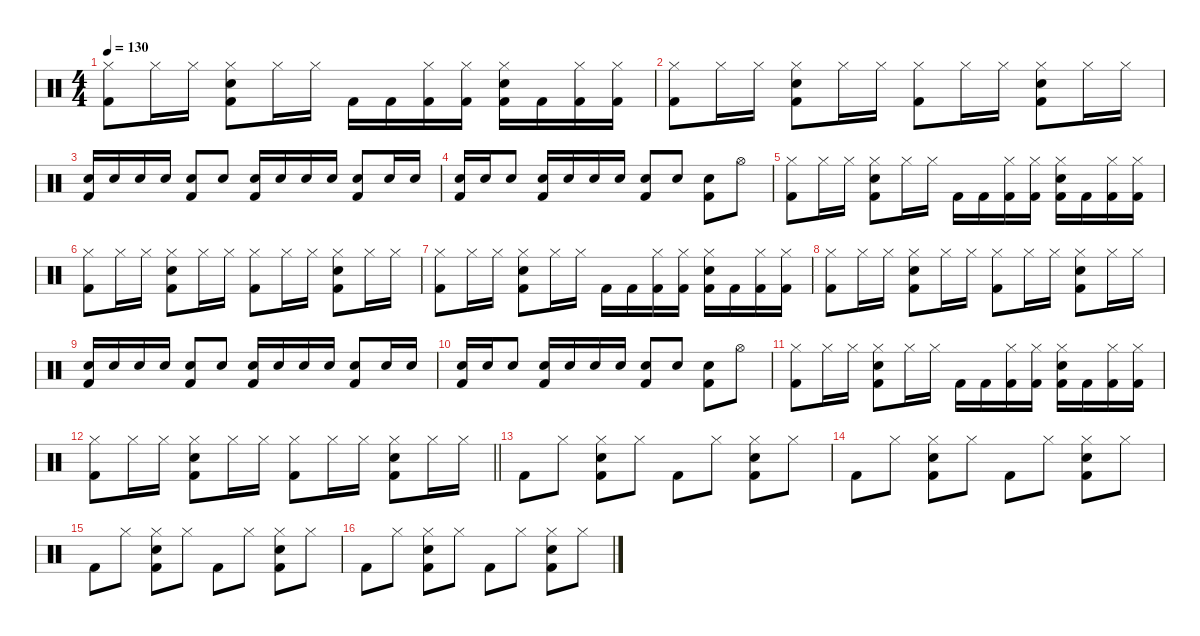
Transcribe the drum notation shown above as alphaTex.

\defaultSystemsLayout 4
\hideDynamics
\bracketExtendMode nobrackets
\singleTrackTrackNamePolicy hidden
\multiTrackTrackNamePolicy hidden
\otherSystemsTrackNameOrientation horizontal
\track ("Percussion" "drm.") {defaultSystemsLayout 4 instrument percussion}
\staff {score}
\articulation defaults
\ts (4 4)
\tempo 130
\clef neutral
\ks c
("Hi-Hat (closed)" "Kick (hit) 2").8{dy f beam Down} "Hi-Hat (closed)".16{beam Down} "Hi-Hat (closed)".16{beam Down} ("Hi-Hat (closed)" "Snare (hit) 2" "Kick (hit) 2").8{beam Down} "Hi-Hat (closed)".16{beam Down} "Hi-Hat (closed)".16{beam Down} "Kick (hit) 2".16{beam Down} "Kick (hit) 2".16{beam Down} ("Hi-Hat (closed)" "Kick (hit) 2").16{beam Down} ("Hi-Hat (closed)" "Kick (hit) 2").16{beam Down} ("Hi-Hat (closed)" "Snare (hit) 2" "Kick (hit) 2").16{beam Down} "Kick (hit) 2".16{beam Down} ("Hi-Hat (closed)" "Kick (hit) 2").16{beam Down} ("Hi-Hat (closed)" "Kick (hit) 2").16{beam Down} |
("Hi-Hat (closed)" "Kick (hit) 2").8{beam Down} "Hi-Hat (closed)".16{beam Down} "Hi-Hat (closed)".16{beam Down} ("Hi-Hat (closed)" "Snare (hit) 2" "Kick (hit) 2").8{beam Down} "Hi-Hat (closed)".16{beam Down} "Hi-Hat (closed)".16{beam Down} ("Hi-Hat (closed)" "Kick (hit) 2").8{beam Down} "Hi-Hat (closed)".16{beam Down} "Hi-Hat (closed)".16{beam Down} ("Hi-Hat (closed)" "Snare (hit) 2" "Kick (hit) 2").8{beam Down} "Hi-Hat (closed)".16{beam Down} "Hi-Hat (closed)".16{beam Down} |
("Snare (hit) 2" "Kick (hit) 2").16{beam Up} "Snare (hit) 2".16{beam Up} "Snare (hit) 2".16{beam Up} "Snare (hit) 2".16{beam Up} ("Snare (hit) 2" "Kick (hit) 2").8{beam Up} "Snare (hit) 2".8{beam Up} ("Snare (hit) 2" "Kick (hit) 2").16{beam Up} "Snare (hit) 2".16{beam Up} "Snare (hit) 2".16{beam Up} "Snare (hit) 2".16{beam Up} ("Snare (hit) 2" "Kick (hit) 2").8{beam Up} "Snare (hit) 2".16{beam Up} "Snare (hit) 2".16{beam Up} |
("Snare (hit) 2" "Kick (hit) 2").16{beam Up} "Snare (hit) 2".16{beam Up} "Snare (hit) 2".8{beam Up} ("Snare (hit) 2" "Kick (hit) 2").16{beam Up} "Snare (hit) 2".16{beam Up} "Snare (hit) 2".16{beam Up} "Snare (hit) 2".16{beam Up} ("Snare (hit) 2" "Kick (hit) 2").8{beam Up} "Hand Clap (hit)".8{beam Up} ("Hand Clap (hit)" "Kick (hit) 2").8{beam Down} "Hi-Hat (open)".8{beam Down} |
("Hi-Hat (closed)" "Kick (hit) 2").8{beam Down} "Hi-Hat (closed)".16{beam Down} "Hi-Hat (closed)".16{beam Down} ("Hi-Hat (closed)" "Snare (hit) 2" "Kick (hit) 2").8{beam Down} "Hi-Hat (closed)".16{beam Down} "Hi-Hat (closed)".16{beam Down} "Kick (hit) 2".16{beam Down} "Kick (hit) 2".16{beam Down} ("Hi-Hat (closed)" "Kick (hit) 2").16{beam Down} ("Hi-Hat (closed)" "Kick (hit) 2").16{beam Down} ("Hi-Hat (closed)" "Snare (hit) 2" "Kick (hit) 2").16{beam Down} "Kick (hit) 2".16{beam Down} ("Hi-Hat (closed)" "Kick (hit) 2").16{beam Down} ("Hi-Hat (closed)" "Kick (hit) 2").16{beam Down} |
("Hi-Hat (closed)" "Kick (hit) 2").8{beam Down} "Hi-Hat (closed)".16{beam Down} "Hi-Hat (closed)".16{beam Down} ("Hi-Hat (closed)" "Snare (hit) 2" "Kick (hit) 2").8{beam Down} "Hi-Hat (closed)".16{beam Down} "Hi-Hat (closed)".16{beam Down} ("Hi-Hat (closed)" "Kick (hit) 2").8{beam Down} "Hi-Hat (closed)".16{beam Down} "Hi-Hat (closed)".16{beam Down} ("Hi-Hat (closed)" "Snare (hit) 2" "Kick (hit) 2").8{beam Down} "Hi-Hat (closed)".16{beam Down} "Hi-Hat (closed)".16{beam Down} |
("Hi-Hat (closed)" "Kick (hit) 2").8{beam Down} "Hi-Hat (closed)".16{beam Down} "Hi-Hat (closed)".16{beam Down} ("Hi-Hat (closed)" "Snare (hit) 2" "Kick (hit) 2").8{beam Down} "Hi-Hat (closed)".16{beam Down} "Hi-Hat (closed)".16{beam Down} "Kick (hit) 2".16{beam Down} "Kick (hit) 2".16{beam Down} ("Hi-Hat (closed)" "Kick (hit) 2").16{beam Down} ("Hi-Hat (closed)" "Kick (hit) 2").16{beam Down} ("Hi-Hat (closed)" "Snare (hit) 2" "Kick (hit) 2").16{beam Down} "Kick (hit) 2".16{beam Down} ("Hi-Hat (closed)" "Kick (hit) 2").16{beam Down} ("Hi-Hat (closed)" "Kick (hit) 2").16{beam Down} |
("Hi-Hat (closed)" "Kick (hit) 2").8{beam Down} "Hi-Hat (closed)".16{beam Down} "Hi-Hat (closed)".16{beam Down} ("Hi-Hat (closed)" "Snare (hit) 2" "Kick (hit) 2").8{beam Down} "Hi-Hat (closed)".16{beam Down} "Hi-Hat (closed)".16{beam Down} ("Hi-Hat (closed)" "Kick (hit) 2").8{beam Down} "Hi-Hat (closed)".16{beam Down} "Hi-Hat (closed)".16{beam Down} ("Hi-Hat (closed)" "Snare (hit) 2" "Kick (hit) 2").8{beam Down} "Hi-Hat (closed)".16{beam Down} "Hi-Hat (closed)".16{beam Down} |
("Snare (hit) 2" "Kick (hit) 2").16{beam Up} "Snare (hit) 2".16{beam Up} "Snare (hit) 2".16{beam Up} "Snare (hit) 2".16{beam Up} ("Snare (hit) 2" "Kick (hit) 2").8{beam Up} "Snare (hit) 2".8{beam Up} ("Snare (hit) 2" "Kick (hit) 2").16{beam Up} "Snare (hit) 2".16{beam Up} "Snare (hit) 2".16{beam Up} "Snare (hit) 2".16{beam Up} ("Snare (hit) 2" "Kick (hit) 2").8{beam Up} "Snare (hit) 2".16{beam Up} "Snare (hit) 2".16{beam Up} |
("Snare (hit) 2" "Kick (hit) 2").16{beam Up} "Snare (hit) 2".16{beam Up} "Snare (hit) 2".8{beam Up} ("Snare (hit) 2" "Kick (hit) 2").16{beam Up} "Snare (hit) 2".16{beam Up} "Snare (hit) 2".16{beam Up} "Snare (hit) 2".16{beam Up} ("Snare (hit) 2" "Kick (hit) 2").8{beam Up} "Hand Clap (hit)".8{beam Up} ("Hand Clap (hit)" "Kick (hit) 2").8{beam Down} "Hi-Hat (open)".8{beam Down} |
("Hi-Hat (closed)" "Kick (hit) 2").8{beam Down} "Hi-Hat (closed)".16{beam Down} "Hi-Hat (closed)".16{beam Down} ("Hi-Hat (closed)" "Snare (hit) 2" "Kick (hit) 2").8{beam Down} "Hi-Hat (closed)".16{beam Down} "Hi-Hat (closed)".16{beam Down} "Kick (hit) 2".16{beam Down} "Kick (hit) 2".16{beam Down} ("Hi-Hat (closed)" "Kick (hit) 2").16{beam Down} ("Hi-Hat (closed)" "Kick (hit) 2").16{beam Down} ("Hi-Hat (closed)" "Snare (hit) 2" "Kick (hit) 2").16{beam Down} "Kick (hit) 2".16{beam Down} ("Hi-Hat (closed)" "Kick (hit) 2").16{beam Down} ("Hi-Hat (closed)" "Kick (hit) 2").16{beam Down} |
\barLineRight lightlight
("Hi-Hat (closed)" "Kick (hit) 2").8{beam Down} "Hi-Hat (closed)".16{beam Down} "Hi-Hat (closed)".16{beam Down} ("Hi-Hat (closed)" "Snare (hit) 2" "Kick (hit) 2").8{beam Down} "Hi-Hat (closed)".16{beam Down} "Hi-Hat (closed)".16{beam Down} ("Hi-Hat (closed)" "Kick (hit) 2").8{beam Down} "Hi-Hat (closed)".16{beam Down} "Hi-Hat (closed)".16{beam Down} ("Hi-Hat (closed)" "Snare (hit) 2" "Kick (hit) 2").8{beam Down} "Hi-Hat (closed)".16{beam Down} "Hi-Hat (closed)".16{beam Down} |
"Kick (hit) 2".8{beam Down} "Hi-Hat (closed)".8{beam Down} ("Hi-Hat (closed)" "Snare (hit) 2" "Kick (hit) 2").8{beam Down} "Hi-Hat (closed)".8{beam Down} "Kick (hit) 2".8{beam Down} "Hi-Hat (closed)".8{beam Down} ("Hi-Hat (closed)" "Snare (hit) 2" "Kick (hit) 2").8{beam Down} "Hi-Hat (closed)".8{beam Down} |
"Kick (hit) 2".8{beam Down} "Hi-Hat (closed)".8{beam Down} ("Hi-Hat (closed)" "Snare (hit) 2" "Kick (hit) 2").8{beam Down} "Hi-Hat (closed)".8{beam Down} "Kick (hit) 2".8{beam Down} "Hi-Hat (closed)".8{beam Down} ("Hi-Hat (closed)" "Snare (hit) 2" "Kick (hit) 2").8{beam Down} "Hi-Hat (closed)".8{beam Down} |
"Kick (hit) 2".8{beam Down} "Hi-Hat (closed)".8{beam Down} ("Hi-Hat (closed)" "Snare (hit) 2" "Kick (hit) 2").8{beam Down} "Hi-Hat (closed)".8{beam Down} "Kick (hit) 2".8{beam Down} "Hi-Hat (closed)".8{beam Down} ("Hi-Hat (closed)" "Snare (hit) 2" "Kick (hit) 2").8{beam Down} "Hi-Hat (closed)".8{beam Down} |
"Kick (hit) 2".8{beam Down} "Hi-Hat (closed)".8{beam Down} ("Hi-Hat (closed)" "Snare (hit) 2" "Kick (hit) 2").8{beam Down} "Hi-Hat (closed)".8{beam Down} "Kick (hit) 2".8{beam Down} "Hi-Hat (closed)".8{beam Down} ("Hi-Hat (closed)" "Snare (hit) 2" "Kick (hit) 2").8{beam Down} "Hi-Hat (closed)".8{beam Down}
